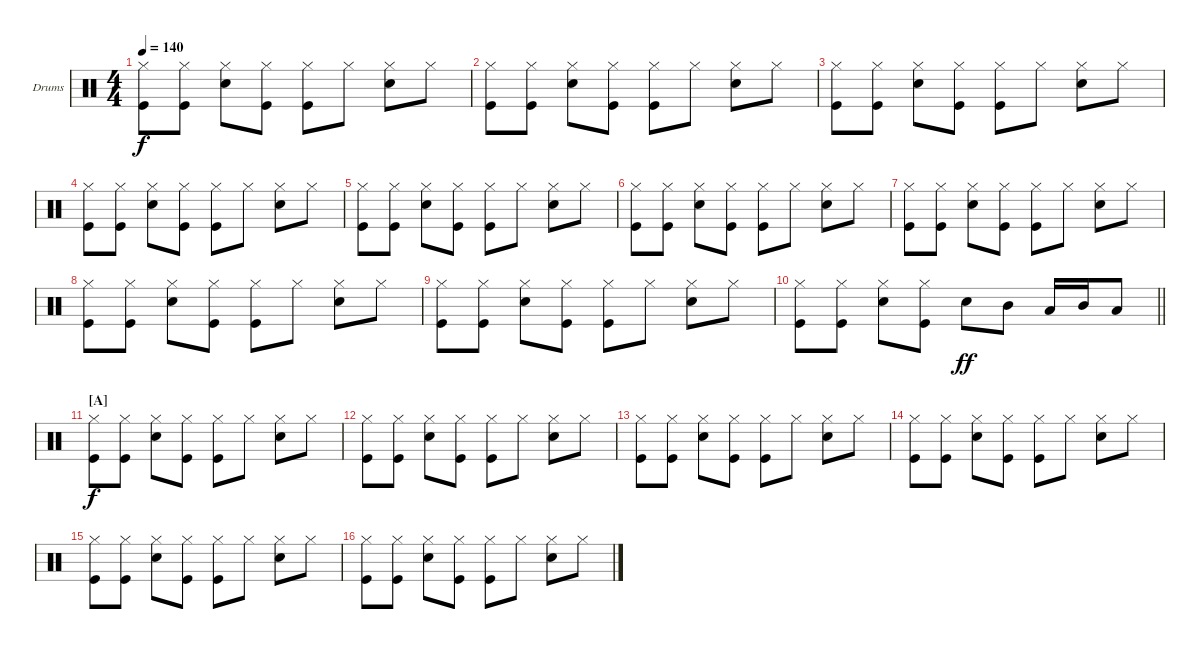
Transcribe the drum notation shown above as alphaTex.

\bracketExtendMode groupsimilarinstruments
\firstSystemTrackNameOrientation horizontal
\otherSystemsTrackNameOrientation horizontal
\track ("Fabrizio Moretti" "Drums") {instrument percussion}
\staff {score}
\articulation defaults
\ts (4 4)
\tempo 140
\clef neutral
\ks aminor
("Kick (hit)" "Hi-Hat (closed)").8{dy f} ("Kick (hit)" "Hi-Hat (closed)").8 ("Snare (hit) 2" "Hi-Hat (closed)").8 ("Kick (hit)" "Hi-Hat (closed)").8 ("Kick (hit)" "Hi-Hat (closed)").8 "Hi-Hat (closed)".8 ("Snare (hit) 2" "Hi-Hat (closed)").8 "Hi-Hat (closed)".8 |
("Kick (hit)" "Hi-Hat (closed)").8 ("Kick (hit)" "Hi-Hat (closed)").8 ("Snare (hit) 2" "Hi-Hat (closed)").8 ("Kick (hit)" "Hi-Hat (closed)").8 ("Kick (hit)" "Hi-Hat (closed)").8 "Hi-Hat (closed)".8 ("Snare (hit) 2" "Hi-Hat (closed)").8 "Hi-Hat (closed)".8 |
("Kick (hit)" "Hi-Hat (closed)").8 ("Kick (hit)" "Hi-Hat (closed)").8 ("Snare (hit) 2" "Hi-Hat (closed)").8 ("Kick (hit)" "Hi-Hat (closed)").8 ("Kick (hit)" "Hi-Hat (closed)").8 "Hi-Hat (closed)".8 ("Snare (hit) 2" "Hi-Hat (closed)").8 "Hi-Hat (closed)".8 |
("Kick (hit)" "Hi-Hat (closed)").8 ("Kick (hit)" "Hi-Hat (closed)").8 ("Snare (hit) 2" "Hi-Hat (closed)").8 ("Kick (hit)" "Hi-Hat (closed)").8 ("Kick (hit)" "Hi-Hat (closed)").8 "Hi-Hat (closed)".8 ("Snare (hit) 2" "Hi-Hat (closed)").8 "Hi-Hat (closed)".8 |
("Kick (hit)" "Hi-Hat (closed)").8 ("Kick (hit)" "Hi-Hat (closed)").8 ("Snare (hit) 2" "Hi-Hat (closed)").8 ("Kick (hit)" "Hi-Hat (closed)").8 ("Kick (hit)" "Hi-Hat (closed)").8 "Hi-Hat (closed)".8 ("Snare (hit) 2" "Hi-Hat (closed)").8 "Hi-Hat (closed)".8 |
("Kick (hit)" "Hi-Hat (closed)").8 ("Kick (hit)" "Hi-Hat (closed)").8 ("Snare (hit) 2" "Hi-Hat (closed)").8 ("Kick (hit)" "Hi-Hat (closed)").8 ("Kick (hit)" "Hi-Hat (closed)").8 "Hi-Hat (closed)".8 ("Snare (hit) 2" "Hi-Hat (closed)").8 "Hi-Hat (closed)".8 |
("Kick (hit)" "Hi-Hat (closed)").8 ("Kick (hit)" "Hi-Hat (closed)").8 ("Snare (hit) 2" "Hi-Hat (closed)").8 ("Kick (hit)" "Hi-Hat (closed)").8 ("Kick (hit)" "Hi-Hat (closed)").8 "Hi-Hat (closed)".8 ("Snare (hit) 2" "Hi-Hat (closed)").8 "Hi-Hat (closed)".8 |
("Kick (hit)" "Hi-Hat (closed)").8 ("Kick (hit)" "Hi-Hat (closed)").8 ("Snare (hit) 2" "Hi-Hat (closed)").8 ("Kick (hit)" "Hi-Hat (closed)").8 ("Kick (hit)" "Hi-Hat (closed)").8 "Hi-Hat (closed)".8 ("Snare (hit) 2" "Hi-Hat (closed)").8 "Hi-Hat (closed)".8 |
("Kick (hit)" "Hi-Hat (closed)").8 ("Kick (hit)" "Hi-Hat (closed)").8 ("Snare (hit) 2" "Hi-Hat (closed)").8 ("Kick (hit)" "Hi-Hat (closed)").8 ("Kick (hit)" "Hi-Hat (closed)").8 "Hi-Hat (closed)".8 ("Snare (hit) 2" "Hi-Hat (closed)").8 "Hi-Hat (closed)".8 |
\barLineRight lightlight
("Kick (hit)" "Hi-Hat (closed)").8 ("Kick (hit)" "Hi-Hat (closed)").8 ("Snare (hit) 2" "Hi-Hat (closed)").8 ("Kick (hit)" "Hi-Hat (closed)").8 "Snare (hit) 2".8{dy ff} "Mid Tom (hit)".8 "Low Tom (hit)".16 "Mid Tom (hit)".16 "Low Tom (hit)".8 |
\section ("A" "")
("Kick (hit)" "Hi-Hat (closed)").8{dy f} ("Kick (hit)" "Hi-Hat (closed)").8 ("Snare (hit) 2" "Hi-Hat (closed)").8 ("Kick (hit)" "Hi-Hat (closed)").8 ("Kick (hit)" "Hi-Hat (closed)").8 "Hi-Hat (closed)".8 ("Snare (hit) 2" "Hi-Hat (closed)").8 "Hi-Hat (closed)".8 |
("Kick (hit)" "Hi-Hat (closed)").8 ("Kick (hit)" "Hi-Hat (closed)").8 ("Snare (hit) 2" "Hi-Hat (closed)").8 ("Kick (hit)" "Hi-Hat (closed)").8 ("Kick (hit)" "Hi-Hat (closed)").8 "Hi-Hat (closed)".8 ("Snare (hit) 2" "Hi-Hat (closed)").8 "Hi-Hat (closed)".8 |
("Kick (hit)" "Hi-Hat (closed)").8 ("Kick (hit)" "Hi-Hat (closed)").8 ("Snare (hit) 2" "Hi-Hat (closed)").8 ("Kick (hit)" "Hi-Hat (closed)").8 ("Kick (hit)" "Hi-Hat (closed)").8 "Hi-Hat (closed)".8 ("Snare (hit) 2" "Hi-Hat (closed)").8 "Hi-Hat (closed)".8 |
("Kick (hit)" "Hi-Hat (closed)").8 ("Kick (hit)" "Hi-Hat (closed)").8 ("Snare (hit) 2" "Hi-Hat (closed)").8 ("Kick (hit)" "Hi-Hat (closed)").8 ("Kick (hit)" "Hi-Hat (closed)").8 "Hi-Hat (closed)".8 ("Snare (hit) 2" "Hi-Hat (closed)").8 "Hi-Hat (closed)".8 |
("Kick (hit)" "Hi-Hat (closed)").8 ("Kick (hit)" "Hi-Hat (closed)").8 ("Snare (hit) 2" "Hi-Hat (closed)").8 ("Kick (hit)" "Hi-Hat (closed)").8 ("Kick (hit)" "Hi-Hat (closed)").8 "Hi-Hat (closed)".8 ("Snare (hit) 2" "Hi-Hat (closed)").8 "Hi-Hat (closed)".8 |
("Kick (hit)" "Hi-Hat (closed)").8 ("Kick (hit)" "Hi-Hat (closed)").8 ("Snare (hit) 2" "Hi-Hat (closed)").8 ("Kick (hit)" "Hi-Hat (closed)").8 ("Kick (hit)" "Hi-Hat (closed)").8 "Hi-Hat (closed)".8 ("Snare (hit) 2" "Hi-Hat (closed)").8 "Hi-Hat (closed)".8
